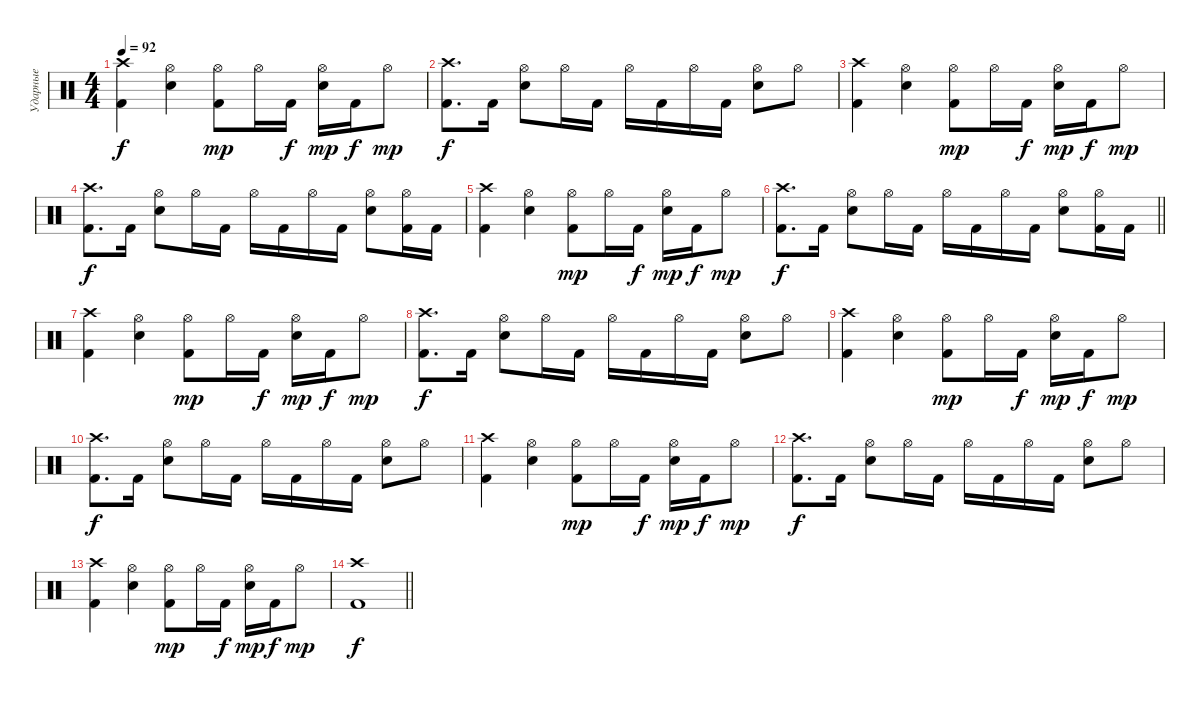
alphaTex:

\track ("Ударные" "Ударные") {instrument percussion}
\staff {score}
\articulation defaults
\ts (4 4)
\tempo 92
\clef neutral
\ks c
("Kick (hit) 2" "Crash high (hit)").4{dy f} ("Snare (hit) 2" "Hi-Hat (open)").4 ("Kick (hit) 2" "Hi-Hat (open)").8{dy mp} "Hi-Hat (open)".16 "Kick (hit) 2".16{dy f} ("Snare (hit) 2" "Hi-Hat (open)").16{dy mp} "Kick (hit) 2".16{dy f} "Hi-Hat (open)".8{dy mp} |
("Kick (hit) 2" "Crash high (hit)").8{d dy f} "Kick (hit) 2".16 ("Snare (hit) 2" "Hi-Hat (open)").8 "Hi-Hat (open)".16 "Kick (hit) 2".16 "Hi-Hat (open)".16 "Kick (hit) 2".16 "Hi-Hat (open)".16 "Kick (hit) 2".16 ("Snare (hit) 2" "Hi-Hat (open)").8 "Hi-Hat (open)".8 |
("Kick (hit) 2" "Crash high (hit)").4 ("Snare (hit) 2" "Hi-Hat (open)").4 ("Kick (hit) 2" "Hi-Hat (open)").8{dy mp} "Hi-Hat (open)".16 "Kick (hit) 2".16{dy f} ("Snare (hit) 2" "Hi-Hat (open)").16{dy mp} "Kick (hit) 2".16{dy f} "Hi-Hat (open)".8{dy mp} |
("Kick (hit) 2" "Crash high (hit)").8{d dy f} "Kick (hit) 2".16 ("Snare (hit) 2" "Hi-Hat (open)").8 "Hi-Hat (open)".16 "Kick (hit) 2".16 "Hi-Hat (open)".16 "Kick (hit) 2".16 "Hi-Hat (open)".16 "Kick (hit) 2".16 ("Snare (hit) 2" "Hi-Hat (open)").8 ("Kick (hit) 2" "Hi-Hat (open)").16 "Kick (hit) 2".16 |
("Kick (hit) 2" "Crash high (hit)").4 ("Snare (hit) 2" "Hi-Hat (open)").4 ("Kick (hit) 2" "Hi-Hat (open)").8{dy mp} "Hi-Hat (open)".16 "Kick (hit) 2".16{dy f} ("Snare (hit) 2" "Hi-Hat (open)").16{dy mp} "Kick (hit) 2".16{dy f} "Hi-Hat (open)".8{dy mp} |
\barLineRight lightlight
("Kick (hit) 2" "Crash high (hit)").8{d dy f} "Kick (hit) 2".16 ("Snare (hit) 2" "Hi-Hat (open)").8 "Hi-Hat (open)".16 "Kick (hit) 2".16 "Hi-Hat (open)".16 "Kick (hit) 2".16 "Hi-Hat (open)".16 "Kick (hit) 2".16 ("Snare (hit) 2" "Hi-Hat (open)").8 ("Kick (hit) 2" "Hi-Hat (open)").16 "Kick (hit) 2".16 |
("Kick (hit) 2" "Crash high (hit)").4 ("Snare (hit) 2" "Hi-Hat (open)").4 ("Kick (hit) 2" "Hi-Hat (open)").8{dy mp} "Hi-Hat (open)".16 "Kick (hit) 2".16{dy f} ("Snare (hit) 2" "Hi-Hat (open)").16{dy mp} "Kick (hit) 2".16{dy f} "Hi-Hat (open)".8{dy mp} |
("Kick (hit) 2" "Crash high (hit)").8{d dy f} "Kick (hit) 2".16 ("Snare (hit) 2" "Hi-Hat (open)").8 "Hi-Hat (open)".16 "Kick (hit) 2".16 "Hi-Hat (open)".16 "Kick (hit) 2".16 "Hi-Hat (open)".16 "Kick (hit) 2".16 ("Snare (hit) 2" "Hi-Hat (open)").8 "Hi-Hat (open)".8 |
("Kick (hit) 2" "Crash high (hit)").4 ("Snare (hit) 2" "Hi-Hat (open)").4 ("Kick (hit) 2" "Hi-Hat (open)").8{dy mp} "Hi-Hat (open)".16 "Kick (hit) 2".16{dy f} ("Snare (hit) 2" "Hi-Hat (open)").16{dy mp} "Kick (hit) 2".16{dy f} "Hi-Hat (open)".8{dy mp} |
("Kick (hit) 2" "Crash high (hit)").8{d dy f} "Kick (hit) 2".16 ("Snare (hit) 2" "Hi-Hat (open)").8 "Hi-Hat (open)".16 "Kick (hit) 2".16 "Hi-Hat (open)".16 "Kick (hit) 2".16 "Hi-Hat (open)".16 "Kick (hit) 2".16 ("Snare (hit) 2" "Hi-Hat (open)").8 "Hi-Hat (open)".8 |
("Kick (hit) 2" "Crash high (hit)").4 ("Snare (hit) 2" "Hi-Hat (open)").4 ("Kick (hit) 2" "Hi-Hat (open)").8{dy mp} "Hi-Hat (open)".16 "Kick (hit) 2".16{dy f} ("Snare (hit) 2" "Hi-Hat (open)").16{dy mp} "Kick (hit) 2".16{dy f} "Hi-Hat (open)".8{dy mp} |
("Kick (hit) 2" "Crash high (hit)").8{d dy f} "Kick (hit) 2".16 ("Snare (hit) 2" "Hi-Hat (open)").8 "Hi-Hat (open)".16 "Kick (hit) 2".16 "Hi-Hat (open)".16 "Kick (hit) 2".16 "Hi-Hat (open)".16 "Kick (hit) 2".16 ("Snare (hit) 2" "Hi-Hat (open)").8 "Hi-Hat (open)".8 |
("Kick (hit) 2" "Crash high (hit)").4 ("Snare (hit) 2" "Hi-Hat (open)").4 ("Kick (hit) 2" "Hi-Hat (open)").8{dy mp} "Hi-Hat (open)".16 "Kick (hit) 2".16{dy f} ("Snare (hit) 2" "Hi-Hat (open)").16{dy mp} "Kick (hit) 2".16{dy f} "Hi-Hat (open)".8{dy mp} |
\barLineRight lightlight
("Kick (hit) 2" "Crash high (hit)").1{dy f}
